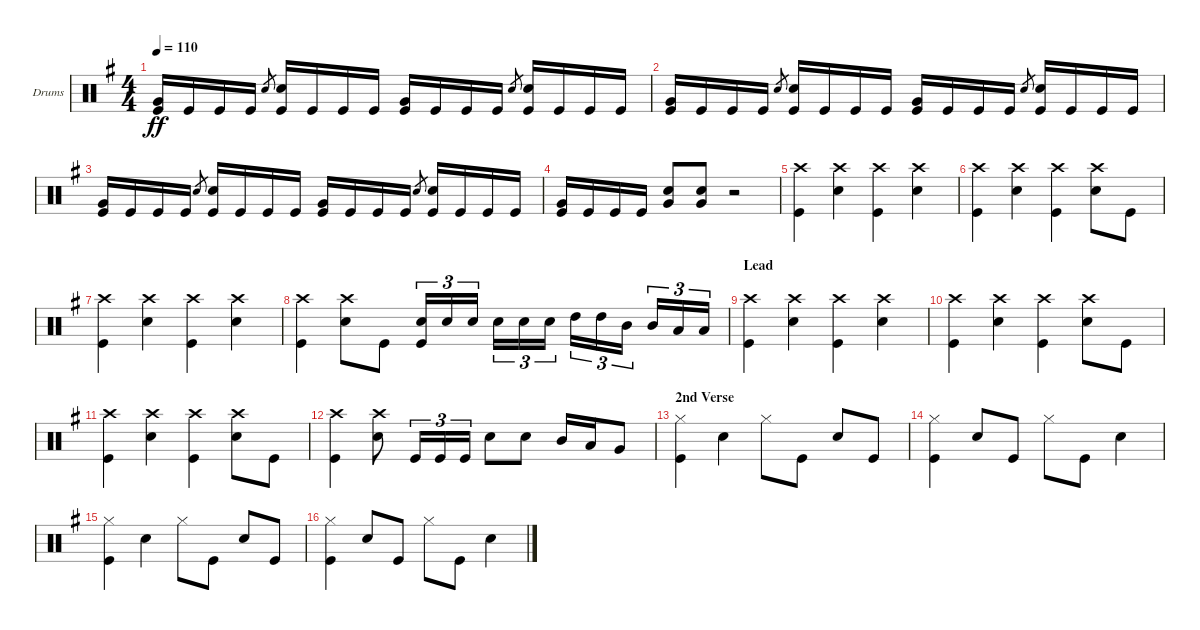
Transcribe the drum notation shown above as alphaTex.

\defaultSystemsLayout 4
\bracketExtendMode groupsimilarinstruments
\firstSystemTrackNameOrientation horizontal
\otherSystemsTrackNameOrientation horizontal
\track ("Drums" "Drums") {instrument percussion}
\staff {score}
\articulation defaults
\ts (4 4)
\tempo 110
\clef neutral
\ks eminor
("Kick (hit)" "Very Low Tom (hit)").16{dy ff} "Kick (hit)".16 "Kick (hit)".16 "Kick (hit)".16 "Snare (hit) 2".8{gr} ("Kick (hit)" "Snare (hit) 2").16 "Kick (hit)".16 "Kick (hit)".16 "Kick (hit)".16 ("Kick (hit)" "Very Low Tom (hit)").16 "Kick (hit)".16 "Kick (hit)".16 "Kick (hit)".16 "Snare (hit) 2".8{gr} ("Kick (hit)" "Snare (hit) 2").16 "Kick (hit)".16 "Kick (hit)".16 "Kick (hit)".16 |
("Kick (hit)" "Very Low Tom (hit)").16 "Kick (hit)".16 "Kick (hit)".16 "Kick (hit)".16 "Snare (hit) 2".8{gr} ("Kick (hit)" "Snare (hit) 2").16 "Kick (hit)".16 "Kick (hit)".16 "Kick (hit)".16 ("Kick (hit)" "Very Low Tom (hit)").16 "Kick (hit)".16 "Kick (hit)".16 "Kick (hit)".16 "Snare (hit) 2".8{gr} ("Kick (hit)" "Snare (hit) 2").16 "Kick (hit)".16 "Kick (hit)".16 "Kick (hit)".16 |
("Kick (hit)" "Very Low Tom (hit)").16 "Kick (hit)".16 "Kick (hit)".16 "Kick (hit)".16 "Snare (hit) 2".8{gr} ("Kick (hit)" "Snare (hit) 2").16 "Kick (hit)".16 "Kick (hit)".16 "Kick (hit)".16 ("Kick (hit)" "Very Low Tom (hit)").16 "Kick (hit)".16 "Kick (hit)".16 "Kick (hit)".16 "Snare (hit) 2".8{gr} ("Kick (hit)" "Snare (hit) 2").16 "Kick (hit)".16 "Kick (hit)".16 "Kick (hit)".16 |
("Kick (hit)" "Very Low Tom (hit)").16 "Kick (hit)".16 "Kick (hit)".16 "Kick (hit)".16 ("Very Low Tom (hit)" "Snare (hit) 2").8 ("Snare (hit) 2" "Very Low Tom (hit)").8 r.2 |
("Kick (hit)" "Crash high (hit)").4 ("Snare (hit) 2" "Crash high (hit)").4 ("Kick (hit)" "Crash high (hit)").4 ("Snare (hit) 2" "Crash high (hit)").4 |
("Kick (hit)" "Crash high (hit)").4 ("Crash high (hit)" "Snare (hit) 2").4 ("Kick (hit)" "Crash high (hit)").4 ("Crash high (hit)" "Snare (hit) 2").8 "Kick (hit)".8 |
("Kick (hit)" "Crash high (hit)").4 ("Crash high (hit)" "Snare (hit) 2").4 ("Kick (hit)" "Crash high (hit)").4 ("Crash high (hit)" "Snare (hit) 2").4 |
("Kick (hit)" "Crash high (hit)").4 ("Crash high (hit)" "Snare (hit) 2").8 "Kick (hit)".8 ("Snare (hit) 2" "Kick (hit)").16{tu (3 2)} "Snare (hit) 2".16{tu (3 2)} "Snare (hit) 2".16{tu (3 2)} "Snare (hit) 2".16{tu (3 2)} "Snare (hit) 2".16{tu (3 2)} "Snare (hit) 2".16{tu (3 2)} "High Tom (hit)".16{tu (3 2)} "High Tom (hit)".16{tu (3 2)} "Mid Tom (hit)".16{tu (3 2)} "Mid Tom (hit)".16{tu (3 2)} "Low Tom (hit)".16{tu (3 2)} "Low Tom (hit)".16{tu (3 2)} |
\section ("" "Lead")
("Kick (hit)" "Crash high (hit)").4 ("Snare (hit) 2" "Crash high (hit)").4 ("Kick (hit)" "Crash high (hit)").4 ("Snare (hit) 2" "Crash high (hit)").4 |
("Kick (hit)" "Crash high (hit)").4 ("Crash high (hit)" "Snare (hit) 2").4 ("Kick (hit)" "Crash high (hit)").4 ("Crash high (hit)" "Snare (hit) 2").8 "Kick (hit)".8 |
("Kick (hit)" "Crash high (hit)").4 ("Crash high (hit)" "Snare (hit) 2").4 ("Kick (hit)" "Crash high (hit)").4 ("Crash high (hit)" "Snare (hit) 2").8 "Kick (hit)".8 |
("Kick (hit)" "Crash high (hit)").4 ("Crash high (hit)" "Snare (hit) 2").8 "Kick (hit)".16{tu (3 2)} "Kick (hit)".16{tu (3 2)} "Kick (hit)".16{tu (3 2)} "Snare (hit) 2".8 "Snare (hit) 2".8 "Mid Tom (hit)".16 "Low Tom (hit)".16 "Very Low Tom (hit)".8 |
\section ("" "2nd Verse")
("Kick (hit)" "Hi-Hat (closed)").4 "Snare (hit) 2".4 "Hi-Hat (closed)".8 "Kick (hit)".8 "Snare (hit) 2".8 "Kick (hit)".8 |
("Kick (hit)" "Hi-Hat (closed)").4 "Snare (hit) 2".8 "Kick (hit)".8 "Hi-Hat (closed)".8 "Kick (hit)".8 "Snare (hit) 2".4 |
("Kick (hit)" "Hi-Hat (closed)").4 "Snare (hit) 2".4 "Hi-Hat (closed)".8 "Kick (hit)".8 "Snare (hit) 2".8 "Kick (hit)".8 |
("Kick (hit)" "Hi-Hat (closed)").4 "Snare (hit) 2".8 "Kick (hit)".8 "Hi-Hat (closed)".8 "Kick (hit)".8 "Snare (hit) 2".4
